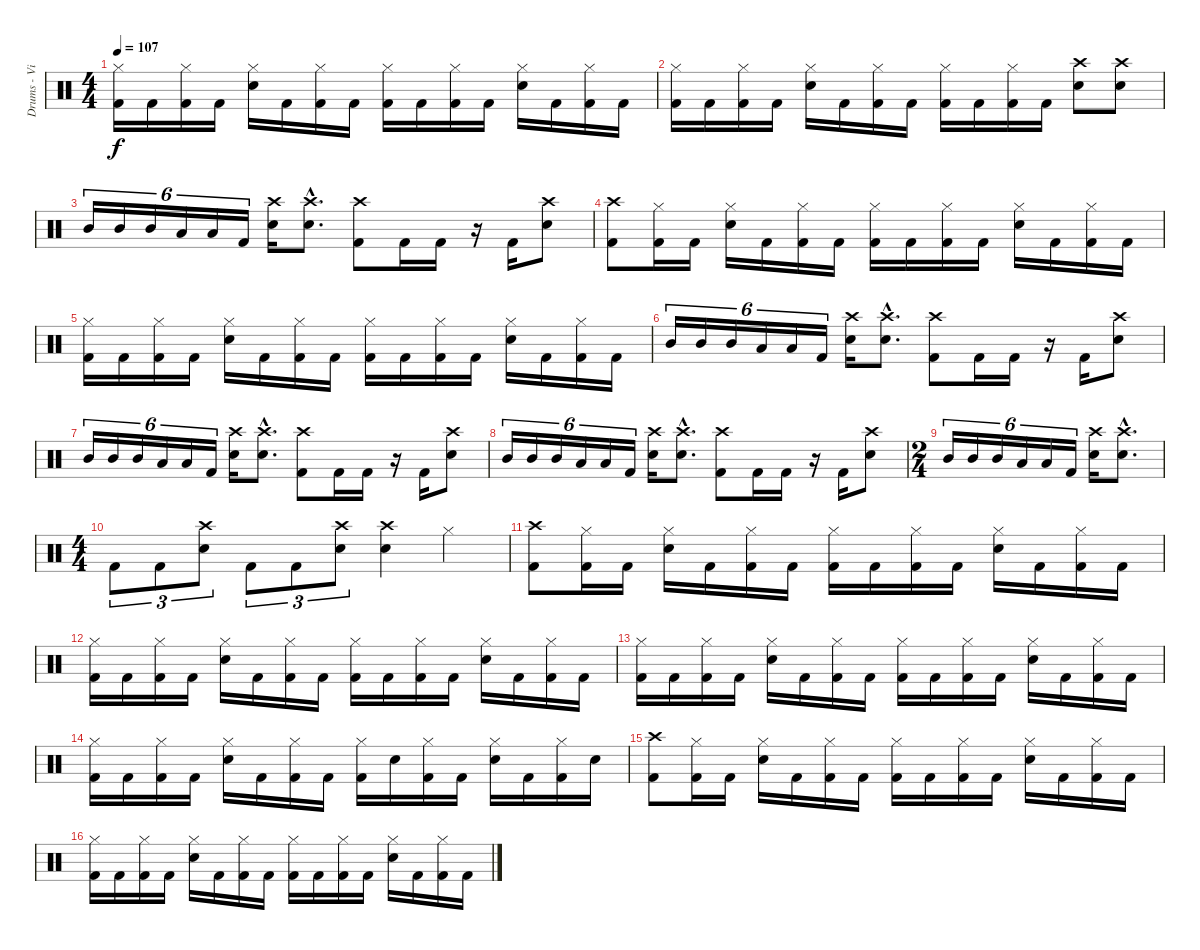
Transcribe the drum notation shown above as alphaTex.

\track ("Drums - Vinnie Paul" "Drums - Vi") {instrument percussion}
\staff {score}
\articulation defaults
\ts (4 4)
\tempo 107
\clef neutral
\ks c
("Hi-Hat (closed)" "Kick (hit) 2").16{dy f} "Kick (hit) 2".16 ("Hi-Hat (closed)" "Kick (hit) 2").16 "Kick (hit) 2".16 ("Hi-Hat (closed)" "Electric Snare (hit)").16 "Kick (hit) 2".16 ("Hi-Hat (closed)" "Kick (hit) 2").16 "Kick (hit) 2".16 ("Hi-Hat (closed)" "Kick (hit) 2").16 "Kick (hit) 2".16 ("Hi-Hat (closed)" "Kick (hit) 2").16 "Kick (hit) 2".16 ("Hi-Hat (closed)" "Electric Snare (hit)").16 "Kick (hit) 2".16 ("Hi-Hat (closed)" "Kick (hit) 2").16 "Kick (hit) 2".16 |
("Hi-Hat (closed)" "Kick (hit) 2").16 "Kick (hit) 2".16 ("Hi-Hat (closed)" "Kick (hit) 2").16 "Kick (hit) 2".16 ("Hi-Hat (closed)" "Electric Snare (hit)").16 "Kick (hit) 2".16 ("Hi-Hat (closed)" "Kick (hit) 2").16 "Kick (hit) 2".16 ("Hi-Hat (closed)" "Kick (hit) 2").16 "Kick (hit) 2".16 ("Hi-Hat (closed)" "Kick (hit) 2").16 "Kick (hit) 2".16 ("Crash high (hit)" "Electric Snare (hit)").8 ("Crash high (hit)" "Electric Snare (hit)").8 |
"Mid Tom (hit)".16{tu (6 4)} "Mid Tom (hit)".16{tu (6 4)} "Mid Tom (hit)".16{tu (6 4)} "Low Tom (hit)".16{tu (6 4)} "Low Tom (hit)".16{tu (6 4)} "Kick (hit) 2".16{tu (6 4)} ("Crash high (hit)" "Electric Snare (hit)").16 ("Crash high (hit)"{hac} "Electric Snare (hit)"{hac}).8{d} ("Crash high (hit)" "Kick (hit) 2").8 "Kick (hit) 2".16 "Kick (hit) 2".16 r.16 "Kick (hit) 2".16 ("Crash high (hit)" "Electric Snare (hit)").8 |
("Crash high (hit)" "Kick (hit) 2").8 ("Hi-Hat (closed)" "Kick (hit) 2").16 "Kick (hit) 2".16 ("Hi-Hat (closed)" "Electric Snare (hit)").16 "Kick (hit) 2".16 ("Hi-Hat (closed)" "Kick (hit) 2").16 "Kick (hit) 2".16 ("Hi-Hat (closed)" "Kick (hit) 2").16 "Kick (hit) 2".16 ("Hi-Hat (closed)" "Kick (hit) 2").16 "Kick (hit) 2".16 ("Hi-Hat (closed)" "Electric Snare (hit)").16 "Kick (hit) 2".16 ("Hi-Hat (closed)" "Kick (hit) 2").16 "Kick (hit) 2".16 |
("Hi-Hat (closed)" "Kick (hit) 2").16 "Kick (hit) 2".16 ("Hi-Hat (closed)" "Kick (hit) 2").16 "Kick (hit) 2".16 ("Hi-Hat (closed)" "Electric Snare (hit)").16 "Kick (hit) 2".16 ("Hi-Hat (closed)" "Kick (hit) 2").16 "Kick (hit) 2".16 ("Hi-Hat (closed)" "Kick (hit) 2").16 "Kick (hit) 2".16 ("Hi-Hat (closed)" "Kick (hit) 2").16 "Kick (hit) 2".16 ("Hi-Hat (closed)" "Electric Snare (hit)").16 "Kick (hit) 2".16 ("Hi-Hat (closed)" "Kick (hit) 2").16 "Kick (hit) 2".16 |
"Mid Tom (hit)".16{tu (6 4)} "Mid Tom (hit)".16{tu (6 4)} "Mid Tom (hit)".16{tu (6 4)} "Low Tom (hit)".16{tu (6 4)} "Low Tom (hit)".16{tu (6 4)} "Kick (hit) 2".16{tu (6 4)} ("Crash high (hit)" "Electric Snare (hit)").16 ("Crash high (hit)"{hac} "Electric Snare (hit)"{hac}).8{d} ("Crash high (hit)" "Kick (hit) 2").8 "Kick (hit) 2".16 "Kick (hit) 2".16 r.16 "Kick (hit) 2".16 ("Crash high (hit)" "Electric Snare (hit)").8 |
"Mid Tom (hit)".16{tu (6 4)} "Mid Tom (hit)".16{tu (6 4)} "Mid Tom (hit)".16{tu (6 4)} "Low Tom (hit)".16{tu (6 4)} "Low Tom (hit)".16{tu (6 4)} "Kick (hit) 2".16{tu (6 4)} ("Crash high (hit)" "Electric Snare (hit)").16 ("Crash high (hit)"{hac} "Electric Snare (hit)"{hac}).8{d} ("Crash high (hit)" "Kick (hit) 2").8 "Kick (hit) 2".16 "Kick (hit) 2".16 r.16 "Kick (hit) 2".16 ("Crash high (hit)" "Electric Snare (hit)").8 |
"Mid Tom (hit)".16{tu (6 4)} "Mid Tom (hit)".16{tu (6 4)} "Mid Tom (hit)".16{tu (6 4)} "Low Tom (hit)".16{tu (6 4)} "Low Tom (hit)".16{tu (6 4)} "Kick (hit) 2".16{tu (6 4)} ("Crash high (hit)" "Electric Snare (hit)").16 ("Crash high (hit)"{hac} "Electric Snare (hit)"{hac}).8{d} ("Crash high (hit)" "Kick (hit) 2").8 "Kick (hit) 2".16 "Kick (hit) 2".16 r.16 "Kick (hit) 2".16 ("Crash high (hit)" "Electric Snare (hit)").8 |
\ts (2 4)
"Mid Tom (hit)".16{tu (6 4)} "Mid Tom (hit)".16{tu (6 4)} "Mid Tom (hit)".16{tu (6 4)} "Low Tom (hit)".16{tu (6 4)} "Low Tom (hit)".16{tu (6 4)} "Kick (hit) 2".16{tu (6 4)} ("Crash high (hit)" "Electric Snare (hit)").16 ("Crash high (hit)"{hac} "Electric Snare (hit)"{hac}).8{d} |
\ts (4 4)
"Kick (hit) 2".8{tu (3 2)} "Kick (hit) 2".8{tu (3 2)} ("Crash high (hit)" "Electric Snare (hit)").8{tu (3 2)} "Kick (hit) 2".8{tu (3 2)} "Kick (hit) 2".8{tu (3 2)} ("Crash high (hit)" "Electric Snare (hit)").8{tu (3 2)} ("Crash high (hit)" "Electric Snare (hit)").4 "Hi-Hat (closed)".4 |
("Crash high (hit)" "Kick (hit) 2").8 ("Hi-Hat (closed)" "Kick (hit) 2").16 "Kick (hit) 2".16 ("Hi-Hat (closed)" "Electric Snare (hit)").16 "Kick (hit) 2".16 ("Hi-Hat (closed)" "Kick (hit) 2").16 "Kick (hit) 2".16 ("Hi-Hat (closed)" "Kick (hit) 2").16 "Kick (hit) 2".16 ("Hi-Hat (closed)" "Kick (hit) 2").16 "Kick (hit) 2".16 ("Hi-Hat (closed)" "Electric Snare (hit)").16 "Kick (hit) 2".16 ("Hi-Hat (closed)" "Kick (hit) 2").16 "Kick (hit) 2".16 |
("Hi-Hat (closed)" "Kick (hit) 2").16 "Kick (hit) 2".16 ("Hi-Hat (closed)" "Kick (hit) 2").16 "Kick (hit) 2".16 ("Hi-Hat (closed)" "Electric Snare (hit)").16 "Kick (hit) 2".16 ("Hi-Hat (closed)" "Kick (hit) 2").16 "Kick (hit) 2".16 ("Hi-Hat (closed)" "Kick (hit) 2").16 "Kick (hit) 2".16 ("Hi-Hat (closed)" "Kick (hit) 2").16 "Kick (hit) 2".16 ("Hi-Hat (closed)" "Electric Snare (hit)").16 "Kick (hit) 2".16 ("Hi-Hat (closed)" "Kick (hit) 2").16 "Kick (hit) 2".16 |
("Hi-Hat (closed)" "Kick (hit) 2").16 "Kick (hit) 2".16 ("Hi-Hat (closed)" "Kick (hit) 2").16 "Kick (hit) 2".16 ("Hi-Hat (closed)" "Electric Snare (hit)").16 "Kick (hit) 2".16 ("Hi-Hat (closed)" "Kick (hit) 2").16 "Kick (hit) 2".16 ("Hi-Hat (closed)" "Kick (hit) 2").16 "Kick (hit) 2".16 ("Hi-Hat (closed)" "Kick (hit) 2").16 "Kick (hit) 2".16 ("Hi-Hat (closed)" "Electric Snare (hit)").16 "Kick (hit) 2".16 ("Hi-Hat (closed)" "Kick (hit) 2").16 "Kick (hit) 2".16 |
("Hi-Hat (closed)" "Kick (hit) 2").16 "Kick (hit) 2".16 ("Hi-Hat (closed)" "Kick (hit) 2").16 "Kick (hit) 2".16 ("Hi-Hat (closed)" "Electric Snare (hit)").16 "Kick (hit) 2".16 ("Hi-Hat (closed)" "Kick (hit) 2").16 "Kick (hit) 2".16 ("Hi-Hat (closed)" "Kick (hit) 2").16 "Electric Snare (hit)".16 ("Hi-Hat (closed)" "Kick (hit) 2").16 "Kick (hit) 2".16 ("Hi-Hat (closed)" "Electric Snare (hit)").16 "Kick (hit) 2".16 ("Hi-Hat (closed)" "Kick (hit) 2").16 "Electric Snare (hit)".16 |
("Crash high (hit)" "Kick (hit) 2").8 ("Hi-Hat (closed)" "Kick (hit) 2").16 "Kick (hit) 2".16 ("Hi-Hat (closed)" "Electric Snare (hit)").16 "Kick (hit) 2".16 ("Hi-Hat (closed)" "Kick (hit) 2").16 "Kick (hit) 2".16 ("Hi-Hat (closed)" "Kick (hit) 2").16 "Kick (hit) 2".16 ("Hi-Hat (closed)" "Kick (hit) 2").16 "Kick (hit) 2".16 ("Hi-Hat (closed)" "Electric Snare (hit)").16 "Kick (hit) 2".16 ("Hi-Hat (closed)" "Kick (hit) 2").16 "Kick (hit) 2".16 |
("Hi-Hat (closed)" "Kick (hit) 2").16 "Kick (hit) 2".16 ("Hi-Hat (closed)" "Kick (hit) 2").16 "Kick (hit) 2".16 ("Hi-Hat (closed)" "Electric Snare (hit)").16 "Kick (hit) 2".16 ("Hi-Hat (closed)" "Kick (hit) 2").16 "Kick (hit) 2".16 ("Hi-Hat (closed)" "Kick (hit) 2").16 "Kick (hit) 2".16 ("Hi-Hat (closed)" "Kick (hit) 2").16 "Kick (hit) 2".16 ("Hi-Hat (closed)" "Electric Snare (hit)").16 "Kick (hit) 2".16 ("Hi-Hat (closed)" "Kick (hit) 2").16 "Kick (hit) 2".16
